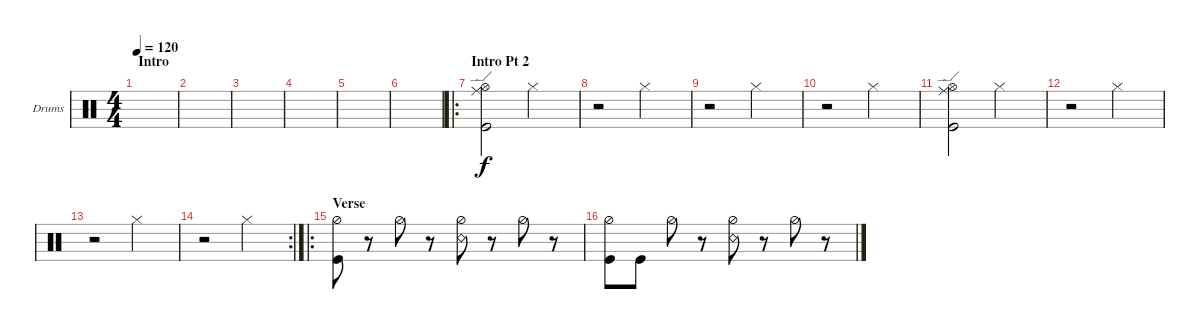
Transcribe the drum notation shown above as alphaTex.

\bracketExtendMode groupsimilarinstruments
\firstSystemTrackNameOrientation horizontal
\otherSystemsTrackNameOrientation horizontal
\track ("Drumkit" "Drums") {instrument percussion}
\staff {score}
\articulation defaults
\ts (4 4)
\section ("" "Intro")
\tempo 120
\clef neutral
\ks c
|
|
|
|
|
|
\ro
\section ("" "Intro Pt 2")
("Kick (hit)" "Hi-Hat (open)" "Ride (edge)").2 "Hi-Hat (closed)".2 |
r.2 "Hi-Hat (closed)".2 |
r.2 "Hi-Hat (closed)".2 |
r.2 "Hi-Hat (closed)".2 |
("Kick (hit)" "Hi-Hat (open)" "Ride (edge)").2 "Hi-Hat (closed)".2 |
r.2 "Hi-Hat (closed)".2 |
r.2 "Hi-Hat (closed)".2 |
\rc 2
r.2 "Hi-Hat (closed)".2 |
\ro
\section ("" "Verse")
("Hi-Hat (half)" "Kick (hit)").8 r.8 "Hi-Hat (half)".8 r.8 ("Hi-Hat (half)" "Snare (rim shot)").8 r.8 "Hi-Hat (half)".8 r.8 |
("Hi-Hat (half)" "Kick (hit)").8 "Kick (hit)".8 "Hi-Hat (half)".8 r.8 ("Hi-Hat (half)" "Snare (rim shot)").8 r.8 "Hi-Hat (half)".8 r.8
